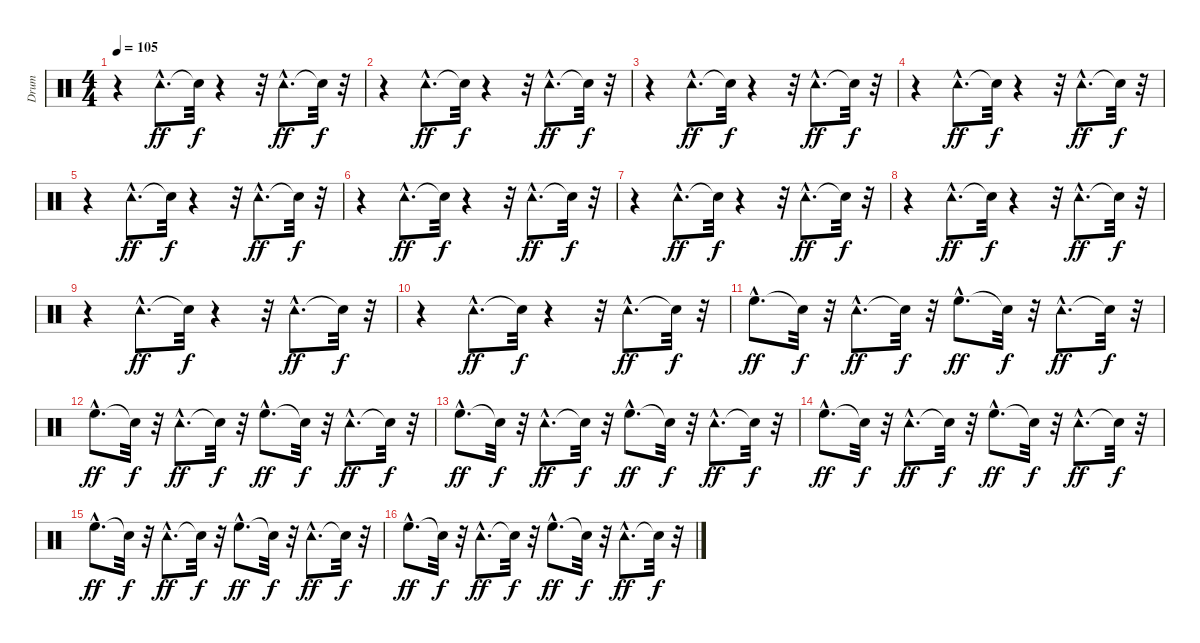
\track ("Drum" "Drum") {instrument percussion}
\staff {score}
\articulation defaults
\ts (4 4)
\tempo 105
\clef neutral
\ks c
r.4{dy f} "Tambourine (hit)"{hac}.8{d dy ff} "Snare (hit)"{t}.32{dy f} r.4 r.32 "Tambourine (hit)"{hac}.8{d dy ff} "Snare (hit)"{t}.32{dy f} r.32 |
r.4 "Tambourine (hit)"{hac}.8{d dy ff} "Snare (hit)"{t}.32{dy f} r.4 r.32 "Tambourine (hit)"{hac}.8{d dy ff} "Snare (hit)"{t}.32{dy f} r.32 |
r.4 "Tambourine (hit)"{hac}.8{d dy ff} "Snare (hit)"{t}.32{dy f} r.4 r.32 "Tambourine (hit)"{hac}.8{d dy ff} "Snare (hit)"{t}.32{dy f} r.32 |
r.4 "Tambourine (hit)"{hac}.8{d dy ff} "Snare (hit)"{t}.32{dy f} r.4 r.32 "Tambourine (hit)"{hac}.8{d dy ff} "Snare (hit)"{t}.32{dy f} r.32 |
r.4 "Tambourine (hit)"{hac}.8{d dy ff} "Snare (hit)"{t}.32{dy f} r.4 r.32 "Tambourine (hit)"{hac}.8{d dy ff} "Snare (hit)"{t}.32{dy f} r.32 |
r.4 "Tambourine (hit)"{hac}.8{d dy ff} "Snare (hit)"{t}.32{dy f} r.4 r.32 "Tambourine (hit)"{hac}.8{d dy ff} "Snare (hit)"{t}.32{dy f} r.32 |
r.4 "Tambourine (hit)"{hac}.8{d dy ff} "Snare (hit)"{t}.32{dy f} r.4 r.32 "Tambourine (hit)"{hac}.8{d dy ff} "Snare (hit)"{t}.32{dy f} r.32 |
r.4 "Tambourine (hit)"{hac}.8{d dy ff} "Snare (hit)"{t}.32{dy f} r.4 r.32 "Tambourine (hit)"{hac}.8{d dy ff} "Snare (hit)"{t}.32{dy f} r.32 |
r.4 "Tambourine (hit)"{hac}.8{d dy ff} "Snare (hit)"{t}.32{dy f} r.4 r.32 "Tambourine (hit)"{hac}.8{d dy ff} "Snare (hit)"{t}.32{dy f} r.32 |
r.4 "Tambourine (hit)"{hac}.8{d dy ff} "Snare (hit)"{t}.32{dy f} r.4 r.32 "Tambourine (hit)"{hac}.8{d dy ff} "Snare (hit)"{t}.32{dy f} r.32 |
"High Floor Tom (hit)"{hac}.8{d dy ff} "Snare (hit)"{t}.32{dy f} r.32 "Tambourine (hit)"{hac}.8{d dy ff} "Snare (hit)"{t}.32{dy f} r.32 "High Floor Tom (hit)"{hac}.8{d dy ff} "Snare (hit)"{t}.32{dy f} r.32 "Tambourine (hit)"{hac}.8{d dy ff} "Snare (hit)"{t}.32{dy f} r.32 |
"High Floor Tom (hit)"{hac}.8{d dy ff} "Snare (hit)"{t}.32{dy f} r.32 "Tambourine (hit)"{hac}.8{d dy ff} "Snare (hit)"{t}.32{dy f} r.32 "High Floor Tom (hit)"{hac}.8{d dy ff} "Snare (hit)"{t}.32{dy f} r.32 "Tambourine (hit)"{hac}.8{d dy ff} "Snare (hit)"{t}.32{dy f} r.32 |
"High Floor Tom (hit)"{hac}.8{d dy ff} "Snare (hit)"{t}.32{dy f} r.32 "Tambourine (hit)"{hac}.8{d dy ff} "Snare (hit)"{t}.32{dy f} r.32 "High Floor Tom (hit)"{hac}.8{d dy ff} "Snare (hit)"{t}.32{dy f} r.32 "Tambourine (hit)"{hac}.8{d dy ff} "Snare (hit)"{t}.32{dy f} r.32 |
"High Floor Tom (hit)"{hac}.8{d dy ff} "Snare (hit)"{t}.32{dy f} r.32 "Tambourine (hit)"{hac}.8{d dy ff} "Snare (hit)"{t}.32{dy f} r.32 "High Floor Tom (hit)"{hac}.8{d dy ff} "Snare (hit)"{t}.32{dy f} r.32 "Tambourine (hit)"{hac}.8{d dy ff} "Snare (hit)"{t}.32{dy f} r.32 |
"High Floor Tom (hit)"{hac}.8{d dy ff} "Snare (hit)"{t}.32{dy f} r.32 "Tambourine (hit)"{hac}.8{d dy ff} "Snare (hit)"{t}.32{dy f} r.32 "High Floor Tom (hit)"{hac}.8{d dy ff} "Snare (hit)"{t}.32{dy f} r.32 "Tambourine (hit)"{hac}.8{d dy ff} "Snare (hit)"{t}.32{dy f} r.32 |
"High Floor Tom (hit)"{hac}.8{d dy ff} "Snare (hit)"{t}.32{dy f} r.32 "Tambourine (hit)"{hac}.8{d dy ff} "Snare (hit)"{t}.32{dy f} r.32 "High Floor Tom (hit)"{hac}.8{d dy ff} "Snare (hit)"{t}.32{dy f} r.32 "Tambourine (hit)"{hac}.8{d dy ff} "Snare (hit)"{t}.32{dy f} r.32
